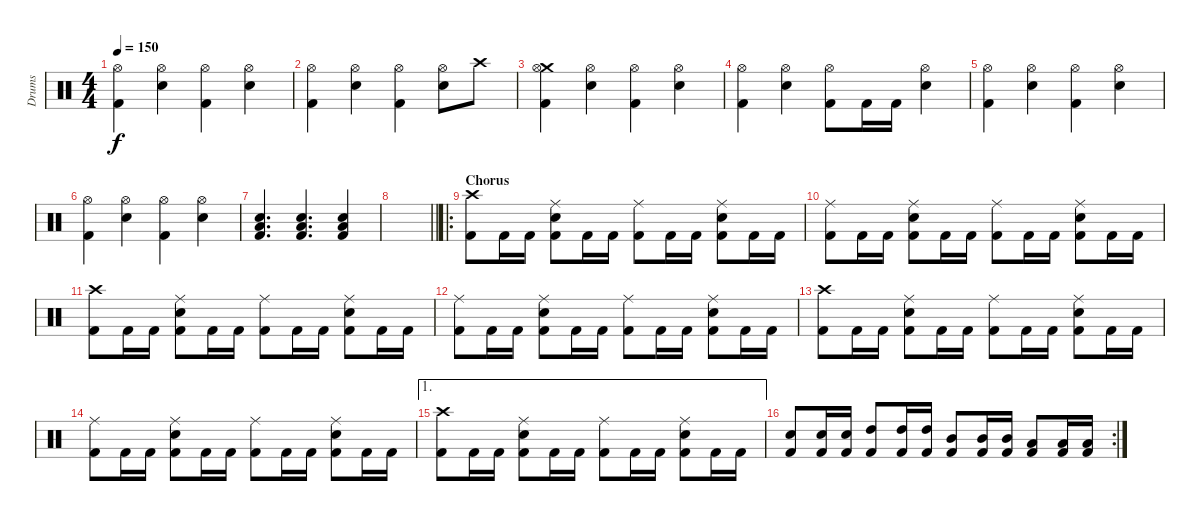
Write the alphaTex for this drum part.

\track ("Drums" "Drums") {instrument percussion}
\staff {score}
\articulation defaults
\ts (4 4)
\tempo 150
\clef neutral
\ks c
("Hi-Hat (open)" "Kick (hit) 2").4{dy f} ("Hi-Hat (open)" "Snare (hit) 2").4 ("Hi-Hat (open)" "Kick (hit) 2").4 ("Hi-Hat (open)" "Snare (hit) 2").4 |
("Hi-Hat (open)" "Kick (hit) 2").4 ("Hi-Hat (open)" "Snare (hit) 2").4 ("Hi-Hat (open)" "Kick (hit) 2").4 ("Hi-Hat (open)" "Snare (hit) 2").8 "Crash high (hit)".8 |
("Crash medium (hit)" "Hi-Hat (open)" "Kick (hit) 2").4 ("Hi-Hat (open)" "Snare (hit) 2").4 ("Hi-Hat (open)" "Kick (hit) 2").4 ("Hi-Hat (open)" "Snare (hit) 2").4 |
("Hi-Hat (open)" "Kick (hit) 2").4 ("Hi-Hat (open)" "Snare (hit) 2").4 ("Hi-Hat (open)" "Kick (hit) 2").8 "Kick (hit) 2".16 "Kick (hit) 2".16 ("Hi-Hat (open)" "Snare (hit) 2").4 |
("Hi-Hat (open)" "Kick (hit) 2").4 ("Hi-Hat (open)" "Snare (hit) 2").4 ("Hi-Hat (open)" "Kick (hit) 2").4 ("Hi-Hat (open)" "Snare (hit) 2").4 |
("Hi-Hat (open)" "Kick (hit) 2").4 ("Hi-Hat (open)" "Snare (hit) 2").4 ("Hi-Hat (open)" "Kick (hit) 2").4 ("Hi-Hat (open)" "Snare (hit) 2").4 |
("Low Tom (hit)" "Snare (hit) 2" "Kick (hit) 2").4{d} ("Low Tom (hit)" "Snare (hit) 2" "Kick (hit) 2").4{d} ("Low Tom (hit)" "Snare (hit) 2" "Kick (hit) 2").4 |
\barLineRight lightlight
|
\ro
\section ("" "Chorus")
("Crash high (hit)" "Kick (hit) 2").8 "Kick (hit) 2".16 "Kick (hit) 2".16 ("Ride (middle)" "Snare (hit) 2" "Kick (hit) 2").8 "Kick (hit) 2".16 "Kick (hit) 2".16 ("Ride (middle)" "Kick (hit) 2").8 "Kick (hit) 2".16 "Kick (hit) 2".16 ("Ride (middle)" "Snare (hit) 2" "Kick (hit) 2").8 "Kick (hit) 2".16 "Kick (hit) 2".16 |
("Ride (middle)" "Kick (hit) 2").8 "Kick (hit) 2".16 "Kick (hit) 2".16 ("Ride (middle)" "Snare (hit) 2" "Kick (hit) 2").8 "Kick (hit) 2".16 "Kick (hit) 2".16 ("Ride (middle)" "Kick (hit) 2").8 "Kick (hit) 2".16 "Kick (hit) 2".16 ("Ride (middle)" "Snare (hit) 2" "Kick (hit) 2").8 "Kick (hit) 2".16 "Kick (hit) 2".16 |
("Crash high (hit)" "Kick (hit) 2").8 "Kick (hit) 2".16 "Kick (hit) 2".16 ("Ride (middle)" "Snare (hit) 2" "Kick (hit) 2").8 "Kick (hit) 2".16 "Kick (hit) 2".16 ("Ride (middle)" "Kick (hit) 2").8 "Kick (hit) 2".16 "Kick (hit) 2".16 ("Ride (middle)" "Snare (hit) 2" "Kick (hit) 2").8 "Kick (hit) 2".16 "Kick (hit) 2".16 |
("Ride (middle)" "Kick (hit) 2").8 "Kick (hit) 2".16 "Kick (hit) 2".16 ("Ride (middle)" "Snare (hit) 2" "Kick (hit) 2").8 "Kick (hit) 2".16 "Kick (hit) 2".16 ("Ride (middle)" "Kick (hit) 2").8 "Kick (hit) 2".16 "Kick (hit) 2".16 ("Ride (middle)" "Snare (hit) 2" "Kick (hit) 2").8 "Kick (hit) 2".16 "Kick (hit) 2".16 |
("Crash high (hit)" "Kick (hit) 2").8 "Kick (hit) 2".16 "Kick (hit) 2".16 ("Ride (middle)" "Snare (hit) 2" "Kick (hit) 2").8 "Kick (hit) 2".16 "Kick (hit) 2".16 ("Ride (middle)" "Kick (hit) 2").8 "Kick (hit) 2".16 "Kick (hit) 2".16 ("Ride (middle)" "Snare (hit) 2" "Kick (hit) 2").8 "Kick (hit) 2".16 "Kick (hit) 2".16 |
("Ride (middle)" "Kick (hit) 2").8 "Kick (hit) 2".16 "Kick (hit) 2".16 ("Ride (middle)" "Snare (hit) 2" "Kick (hit) 2").8 "Kick (hit) 2".16 "Kick (hit) 2".16 ("Ride (middle)" "Kick (hit) 2").8 "Kick (hit) 2".16 "Kick (hit) 2".16 ("Ride (middle)" "Snare (hit) 2" "Kick (hit) 2").8 "Kick (hit) 2".16 "Kick (hit) 2".16 |
\ae 1
("Crash high (hit)" "Kick (hit) 2").8 "Kick (hit) 2".16 "Kick (hit) 2".16 ("Ride (middle)" "Snare (hit) 2" "Kick (hit) 2").8 "Kick (hit) 2".16 "Kick (hit) 2".16 ("Ride (middle)" "Kick (hit) 2").8 "Kick (hit) 2".16 "Kick (hit) 2".16 ("Ride (middle)" "Snare (hit) 2" "Kick (hit) 2").8 "Kick (hit) 2".16 "Kick (hit) 2".16 |
\rc 2
("Snare (hit) 2" "Kick (hit) 2").8 ("Snare (hit) 2" "Kick (hit) 2").16 ("Snare (hit) 2" "Kick (hit) 2").16 ("High Tom (hit)" "Kick (hit) 2").8 ("High Tom (hit)" "Kick (hit) 2").16 ("High Tom (hit)" "Kick (hit) 2").16 ("Mid Tom (hit)" "Kick (hit) 2").8 ("Mid Tom (hit)" "Kick (hit) 2").16 ("Mid Tom (hit)" "Kick (hit) 2").16 ("Low Tom (hit)" "Kick (hit) 2").8 ("Low Tom (hit)" "Kick (hit) 2").16 ("Low Tom (hit)" "Kick (hit) 2").16
